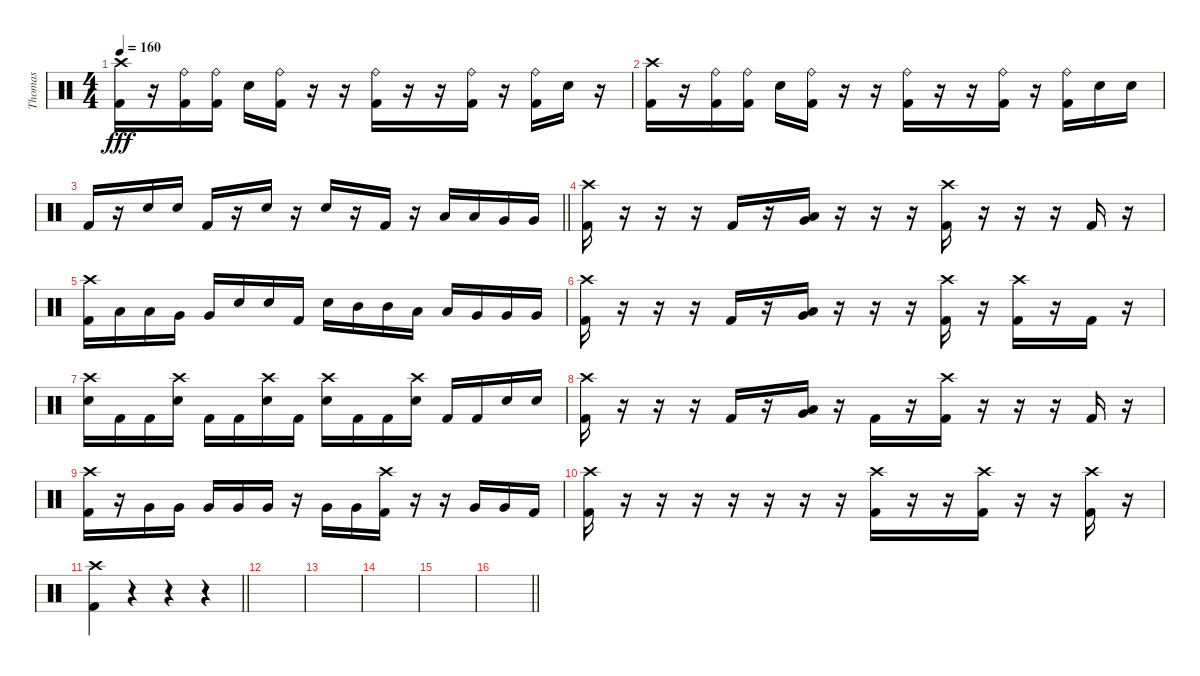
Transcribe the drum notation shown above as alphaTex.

\track ("Thomas " "Thomas ") {instrument percussion}
\staff {score}
\articulation defaults
\ts (4 4)
\tempo 160
\clef neutral
\ks c
("Crash high (hit)" "Kick (hit) 2").16{dy fff} r.16 ("Ride (bell)" "Kick (hit) 2").16 ("Ride (bell)" "Kick (hit) 2").16 "Electric Snare (hit)".16 ("Ride (bell)" "Kick (hit) 2").16 r.16 r.16 ("Ride (bell)" "Kick (hit) 2").16 r.16 r.16 ("Ride (bell)" "Kick (hit) 2").16 r.16 ("Ride (bell)" "Kick (hit) 2").16 "Electric Snare (hit)".16 r.16 |
("Crash high (hit)" "Kick (hit) 2").16 r.16 ("Ride (bell)" "Kick (hit) 2").16 ("Ride (bell)" "Kick (hit) 2").16 "Electric Snare (hit)".16 ("Ride (bell)" "Kick (hit) 2").16 r.16 r.16 ("Ride (bell)" "Kick (hit) 2").16 r.16 r.16 ("Ride (bell)" "Kick (hit) 2").16 r.16 ("Ride (bell)" "Kick (hit) 2").16 "Electric Snare (hit)".16 "Electric Snare (hit)".16 |
\barLineRight lightlight "Kick (hit) 2".16
r.16 "Electric Snare (hit)".16 "Electric Snare (hit)".16 "Kick (hit) 2".16 r.16 "Electric Snare (hit)".16 r.16 "Electric Snare (hit)".16 r.16 "Kick (hit) 2".16 r.16 "Low Tom (hit)".16 "Low Tom (hit)".16 "Very Low Tom (hit)".16 "Very Low Tom (hit)".16 |
("Crash high (hit)" "Kick (hit) 2").16 r.16 r.16 r.16 "Kick (hit) 2".16 r.16 ("Low Tom (hit)" "Very Low Tom (hit)").16 r.16 r.16 r.16 ("Crash high (hit)" "Kick (hit) 2").16 r.16 r.16 r.16 "Kick (hit) 2".16 r.16 |
("Crash high (hit)" "Kick (hit) 2").16 "Low Tom (hit)".16 "Low Tom (hit)".16 "Very Low Tom (hit)".16 "Very Low Tom (hit)".16 "Electric Snare (hit)".16 "Electric Snare (hit)".16 "Kick (hit) 2".16 "Electric Snare (hit)".16 "Mid Tom (hit)".16 "Mid Tom (hit)".16 "Low Tom (hit)".16 "Low Tom (hit)".16 "Very Low Tom (hit)".16 "Very Low Tom (hit)".16 "Very Low Tom (hit)".16 |
("Crash high (hit)" "Kick (hit) 2").16 r.16 r.16 r.16 "Kick (hit) 2".16 r.16 ("Low Tom (hit)" "Very Low Tom (hit)").16 r.16 r.16 r.16 ("Crash high (hit)" "Kick (hit) 2").16 r.16 ("Crash high (hit)" "Kick (hit) 2").16 r.16 "Kick (hit) 2".16 r.16 |
("Crash high (hit)" "Electric Snare (hit)").16 "Kick (hit) 2".16 "Kick (hit) 2".16 ("Crash high (hit)" "Electric Snare (hit)").16 "Kick (hit) 2".16 "Kick (hit) 2".16 ("Crash high (hit)" "Electric Snare (hit)").16 "Kick (hit) 2".16 ("Crash high (hit)" "Electric Snare (hit)").16 "Kick (hit) 2".16 "Kick (hit) 2".16 ("Crash high (hit)" "Electric Snare (hit)").16 "Kick (hit) 2".16 "Kick (hit) 2".16 "Electric Snare (hit)".16 "Electric Snare (hit)".16 |
("Crash high (hit)" "Kick (hit) 2").16 r.16 r.16 r.16 "Kick (hit) 2".16 r.16 ("Low Tom (hit)" "Very Low Tom (hit)").16 r.16 "Kick (hit) 2".16 r.16 ("Crash high (hit)" "Kick (hit) 2").16 r.16 r.16 r.16 "Kick (hit) 2".16 r.16 |
("Crash high (hit)" "Kick (hit) 2").16 r.16 "Very Low Tom (hit)".16 "Very Low Tom (hit)".16 "Very Low Tom (hit)".16 "Very Low Tom (hit)".16 "Very Low Tom (hit)".16 r.16 "Very Low Tom (hit)".16 "Very Low Tom (hit)".16 ("Crash high (hit)" "Kick (hit) 2").16 r.16 r.16 "Very Low Tom (hit)".16 "Very Low Tom (hit)".16 "Kick (hit) 2".16 |
("Crash high (hit)" "Kick (hit) 2").16 r.16 r.16 r.16 r.16 r.16 r.16 r.16 ("Crash high (hit)" "Kick (hit) 2").16 r.16 r.16 ("Crash high (hit)" "Kick (hit) 2").16 r.16 r.16 ("Crash high (hit)" "Kick (hit) 2").16 r.16 |
\barLineRight lightlight
("Crash high (hit)" "Kick (hit) 2").4 r.4 r.4 r.4 |
|
|
|
|
\barLineRight lightlight
